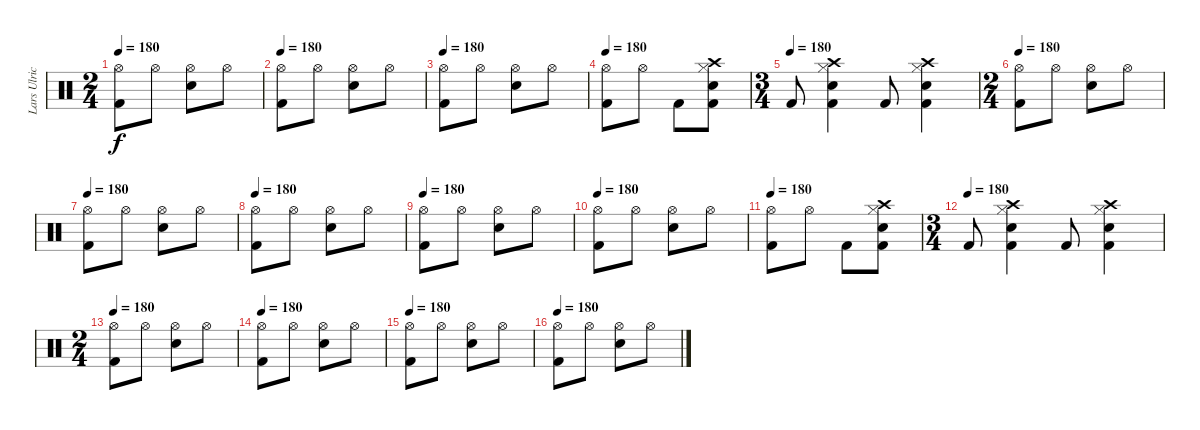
\track ("Lars Ulrich" "Lars Ulric") {instrument percussion}
\staff {score}
\articulation defaults
\ts (2 4)
\tempo 180
\clef neutral
\ks c
("Kick (hit) 2" "Hi-Hat (open)").8{dy f} "Hi-Hat (open)".8 ("Snare (hit) 2" "Hi-Hat (open)").8 "Hi-Hat (open)".8 |
\tempo 180
("Kick (hit) 2" "Hi-Hat (open)").8 "Hi-Hat (open)".8 ("Snare (hit) 2" "Hi-Hat (open)").8 "Hi-Hat (open)".8 |
\tempo 180
("Kick (hit) 2" "Hi-Hat (open)").8 "Hi-Hat (open)".8 ("Snare (hit) 2" "Hi-Hat (open)").8 "Hi-Hat (open)".8 |
\tempo 180
("Kick (hit) 2" "Hi-Hat (open)").8 "Hi-Hat (open)".8 "Kick (hit) 2".8 ("Kick (hit) 2" "Snare (hit) 2" "Hi-Hat (closed)" "Crash high (hit)").8 |
\ts (3 4)
\tempo (180)
"Kick (hit) 2".8 ("Kick (hit) 2" "Snare (hit) 2" "Hi-Hat (closed)" "Crash high (hit)").4 "Kick (hit) 2".8 ("Kick (hit) 2" "Snare (hit) 2" "Hi-Hat (closed)" "Crash high (hit)").4 |
\ts (2 4)
\tempo 180
("Kick (hit) 2" "Hi-Hat (open)").8 "Hi-Hat (open)".8 ("Snare (hit) 2" "Hi-Hat (open)").8 "Hi-Hat (open)".8 |
\tempo 180
("Kick (hit) 2" "Hi-Hat (open)").8 "Hi-Hat (open)".8 ("Snare (hit) 2" "Hi-Hat (open)").8 "Hi-Hat (open)".8 |
\tempo 180
("Kick (hit) 2" "Hi-Hat (open)").8 "Hi-Hat (open)".8 ("Snare (hit) 2" "Hi-Hat (open)").8 "Hi-Hat (open)".8 |
\tempo 180
("Kick (hit) 2" "Hi-Hat (open)").8 "Hi-Hat (open)".8 ("Snare (hit) 2" "Hi-Hat (open)").8 "Hi-Hat (open)".8 |
\tempo 180
("Kick (hit) 2" "Hi-Hat (open)").8 "Hi-Hat (open)".8 ("Snare (hit) 2" "Hi-Hat (open)").8 "Hi-Hat (open)".8 |
\tempo 180
("Kick (hit) 2" "Hi-Hat (open)").8 "Hi-Hat (open)".8 "Kick (hit) 2".8 ("Kick (hit) 2" "Snare (hit) 2" "Hi-Hat (closed)" "Crash high (hit)").8 |
\ts (3 4)
\tempo (180)
"Kick (hit) 2".8 ("Kick (hit) 2" "Snare (hit) 2" "Hi-Hat (closed)" "Crash high (hit)").4 "Kick (hit) 2".8 ("Kick (hit) 2" "Snare (hit) 2" "Hi-Hat (closed)" "Crash high (hit)").4 |
\ts (2 4)
\tempo 180
("Kick (hit) 2" "Hi-Hat (open)").8 "Hi-Hat (open)".8 ("Snare (hit) 2" "Hi-Hat (open)").8 "Hi-Hat (open)".8 |
\tempo 180
("Kick (hit) 2" "Hi-Hat (open)").8 "Hi-Hat (open)".8 ("Snare (hit) 2" "Hi-Hat (open)").8 "Hi-Hat (open)".8 |
\tempo 180
("Kick (hit) 2" "Hi-Hat (open)").8 "Hi-Hat (open)".8 ("Snare (hit) 2" "Hi-Hat (open)").8 "Hi-Hat (open)".8 |
\tempo 180
("Kick (hit) 2" "Hi-Hat (open)").8 "Hi-Hat (open)".8 ("Snare (hit) 2" "Hi-Hat (open)").8 "Hi-Hat (open)".8
